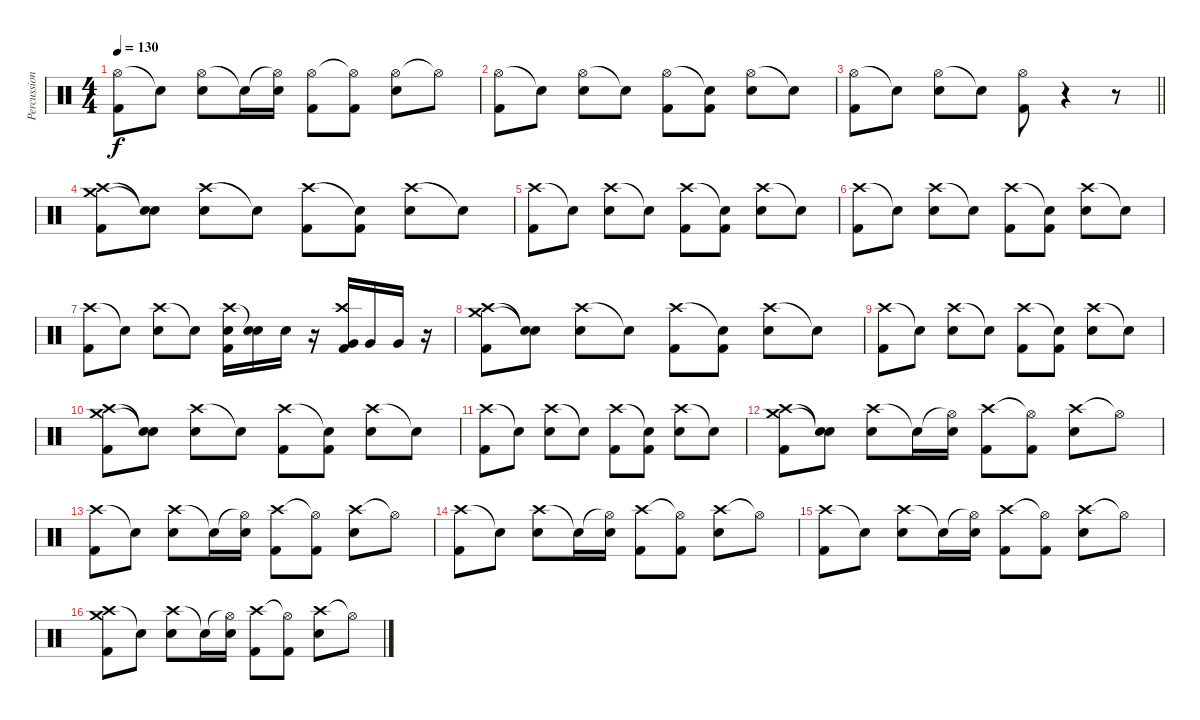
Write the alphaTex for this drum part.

\track ("Percussion" "Percussion") {instrument percussion}
\staff {score}
\articulation defaults
\ts (4 4)
\tempo 130
\clef neutral
\ks c
("Hi-Hat (open)" "Kick (hit) 2").8{dy f} "Snare (hit)"{t}.8 ("Hi-Hat (open)" "Electric Snare (hit)").8 "Snare (hit)"{t}.16 ("Hi-Hat (open)"{t} "Electric Snare (hit)").16 ("Hi-Hat (open)" "Kick (hit) 2").8 ("Hi-Hat (open)"{t} "Kick (hit) 2").8 ("Hi-Hat (open)" "Electric Snare (hit)").8 "Hi-Hat (open)"{t}.8 |
("Hi-Hat (open)" "Kick (hit) 2").8 "Snare (hit)"{t}.8 ("Hi-Hat (open)" "Electric Snare (hit)").8 "Snare (hit)"{t}.8 ("Hi-Hat (open)" "Kick (hit) 2").8 ("Snare (hit)"{t} "Kick (hit) 2").8 ("Hi-Hat (open)" "Electric Snare (hit)").8 "Snare (hit)"{t}.8 |
\barLineRight lightlight
("Hi-Hat (open)" "Kick (hit) 2").8 "Snare (hit)"{t}.8 ("Hi-Hat (open)" "Electric Snare (hit)").8 "Snare (hit)"{t}.8 ("Hi-Hat (open)" "Kick (hit) 2").8 r.4 r.8 |
("Crash medium (hit)" "Crash high (hit)" "Kick (hit) 2").8 ("Snare (hit)"{t} "Snare (hit)"{t}).8 ("Crash high (hit)" "Electric Snare (hit)").8 "Snare (hit)"{t}.8 ("Crash high (hit)" "Kick (hit) 2").8 ("Snare (hit)"{t} "Kick (hit) 2").8 ("Crash high (hit)" "Electric Snare (hit)").8 "Snare (hit)"{t}.8 |
("Crash high (hit)" "Kick (hit) 2").8 "Snare (hit)"{t}.8 ("Crash high (hit)" "Electric Snare (hit)").8 "Snare (hit)"{t}.8 ("Crash high (hit)" "Kick (hit) 2").8 ("Snare (hit)"{t} "Kick (hit) 2").8 ("Crash high (hit)" "Electric Snare (hit)").8 "Snare (hit)"{t}.8 |
("Crash high (hit)" "Kick (hit) 2").8 "Snare (hit)"{t}.8 ("Crash high (hit)" "Electric Snare (hit)").8 "Snare (hit)"{t}.8 ("Crash high (hit)" "Kick (hit) 2").8 ("Snare (hit)"{t} "Kick (hit) 2").8 ("Crash high (hit)" "Electric Snare (hit)").8 "Snare (hit)"{t}.8 |
("Crash high (hit)" "Kick (hit) 2").8 "Snare (hit)"{t}.8 ("Crash high (hit)" "Electric Snare (hit)").8 "Snare (hit)"{t}.8 ("Crash high (hit)" "Electric Snare (hit)" "Kick (hit) 2").16 ("Snare (hit)"{t} "Electric Snare (hit)").16 "Electric Snare (hit)".16 r.16 ("Crash high (hit)" "Very Low Tom (hit)" "Kick (hit) 2").16 "Very Low Tom (hit)".16 "Very Low Tom (hit)".16 r.16 |
("Crash medium (hit)" "Crash high (hit)" "Kick (hit) 2").8 ("Snare (hit)"{t} "Snare (hit)"{t}).8 ("Crash high (hit)" "Electric Snare (hit)").8 "Snare (hit)"{t}.8 ("Crash high (hit)" "Kick (hit) 2").8 ("Snare (hit)"{t} "Kick (hit) 2").8 ("Crash high (hit)" "Electric Snare (hit)").8 "Snare (hit)"{t}.8 |
("Crash high (hit)" "Kick (hit) 2").8 "Snare (hit)"{t}.8 ("Crash high (hit)" "Electric Snare (hit)").8 "Snare (hit)"{t}.8 ("Crash high (hit)" "Kick (hit) 2").8 ("Snare (hit)"{t} "Kick (hit) 2").8 ("Crash high (hit)" "Electric Snare (hit)").8 "Snare (hit)"{t}.8 |
("Crash medium (hit)" "Crash high (hit)" "Kick (hit) 2").8 ("Snare (hit)"{t} "Snare (hit)"{t}).8 ("Crash high (hit)" "Electric Snare (hit)").8 "Snare (hit)"{t}.8 ("Crash high (hit)" "Kick (hit) 2").8 ("Snare (hit)"{t} "Kick (hit) 2").8 ("Crash high (hit)" "Electric Snare (hit)").8 "Snare (hit)"{t}.8 |
("Crash high (hit)" "Kick (hit) 2").8 "Snare (hit)"{t}.8 ("Crash high (hit)" "Electric Snare (hit)").8 "Snare (hit)"{t}.8 ("Crash high (hit)" "Kick (hit) 2").8 ("Snare (hit)"{t} "Kick (hit) 2").8 ("Crash high (hit)" "Electric Snare (hit)").8 "Snare (hit)"{t}.8 |
("Crash medium (hit)" "Crash high (hit)" "Kick (hit) 2").8 ("Snare (hit)"{t} "Snare (hit)"{t}).8 ("Crash high (hit)" "Electric Snare (hit)").8 "Snare (hit)"{t}.16 ("Hi-Hat (open)"{t} "Electric Snare (hit)").16 ("Crash high (hit)" "Kick (hit) 2").8 ("Hi-Hat (open)"{t} "Kick (hit) 2").8 ("Crash high (hit)" "Electric Snare (hit)").8 "Hi-Hat (open)"{t}.8 |
("Crash high (hit)" "Kick (hit) 2").8 "Snare (hit)"{t}.8 ("Crash high (hit)" "Electric Snare (hit)").8 "Snare (hit)"{t}.16 ("Hi-Hat (open)"{t} "Electric Snare (hit)").16 ("Crash high (hit)" "Kick (hit) 2").8 ("Hi-Hat (open)"{t} "Kick (hit) 2").8 ("Crash high (hit)" "Electric Snare (hit)").8 "Hi-Hat (open)"{t}.8 |
("Crash high (hit)" "Kick (hit) 2").8 "Snare (hit)"{t}.8 ("Crash high (hit)" "Electric Snare (hit)").8 "Snare (hit)"{t}.16 ("Hi-Hat (open)"{t} "Electric Snare (hit)").16 ("Crash high (hit)" "Kick (hit) 2").8 ("Hi-Hat (open)"{t} "Kick (hit) 2").8 ("Crash high (hit)" "Electric Snare (hit)").8 "Hi-Hat (open)"{t}.8 |
("Crash high (hit)" "Kick (hit) 2").8 "Snare (hit)"{t}.8 ("Crash high (hit)" "Electric Snare (hit)").8 "Snare (hit)"{t}.16 ("Hi-Hat (open)"{t} "Electric Snare (hit)").16 ("Crash high (hit)" "Kick (hit) 2").8 ("Hi-Hat (open)"{t} "Kick (hit) 2").8 ("Crash high (hit)" "Electric Snare (hit)").8 "Hi-Hat (open)"{t}.8 |
("Crash high (hit)" "Crash medium (hit)" "Kick (hit) 2").8 "Snare (hit)"{t}.8 ("Crash high (hit)" "Electric Snare (hit)").8 "Snare (hit)"{t}.16 ("Hi-Hat (open)"{t} "Electric Snare (hit)").16 ("Crash high (hit)" "Kick (hit) 2").8 ("Hi-Hat (open)"{t} "Kick (hit) 2").8 ("Crash high (hit)" "Electric Snare (hit)").8 "Hi-Hat (open)"{t}.8
